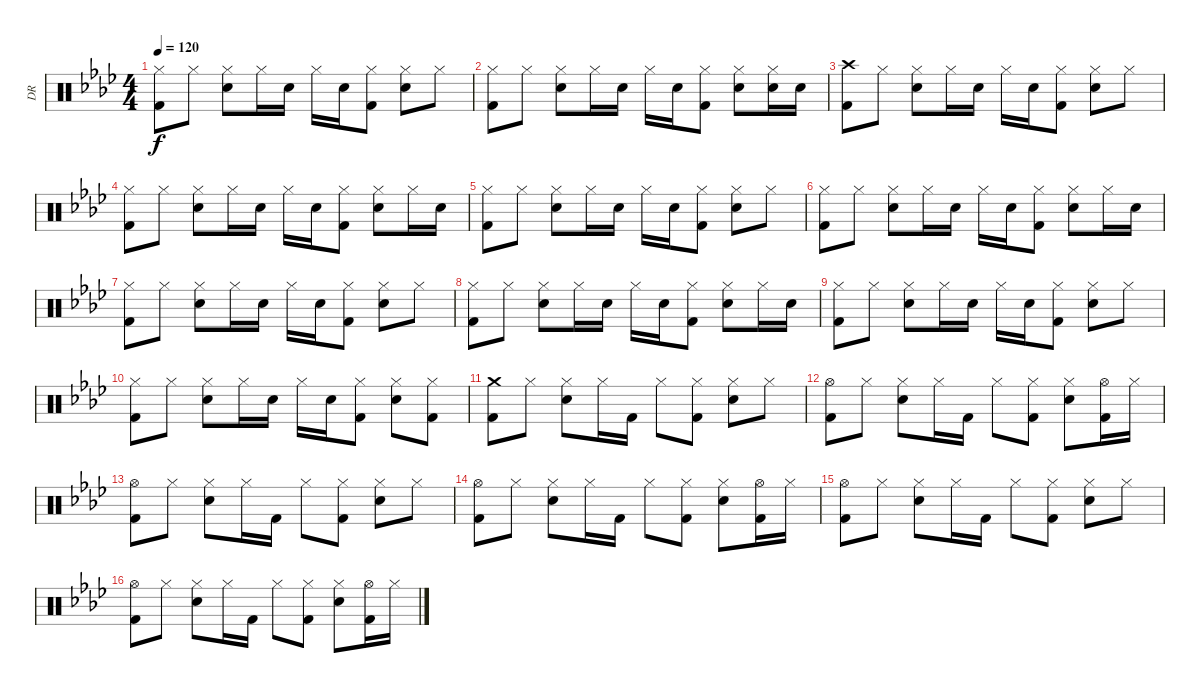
\track ("DR" "DR") {instrument percussion}
\staff {score}
\articulation defaults
\ts (4 4)
\tempo 120
\clef neutral
\ks ab
("Hi-Hat (closed)" "Kick (hit) 2").8{dy f} "Hi-Hat (closed)".8 ("Hi-Hat (closed)" "Electric Snare (hit)").8 "Hi-Hat (closed)".16 "Electric Snare (hit)".16 "Hi-Hat (closed)".16 "Electric Snare (hit)".16 ("Hi-Hat (closed)" "Kick (hit) 2").8 ("Hi-Hat (closed)" "Electric Snare (hit)").8 "Hi-Hat (closed)".8 |
("Hi-Hat (closed)" "Kick (hit) 2").8 "Hi-Hat (closed)".8 ("Hi-Hat (closed)" "Electric Snare (hit)").8 "Hi-Hat (closed)".16 "Electric Snare (hit)".16 "Hi-Hat (closed)".16 "Electric Snare (hit)".16 ("Hi-Hat (closed)" "Kick (hit) 2").8 ("Hi-Hat (closed)" "Electric Snare (hit)").8 ("Hi-Hat (closed)" "Electric Snare (hit)").16 "Electric Snare (hit)".16 |
("Crash high (hit)" "Kick (hit) 2").8 "Hi-Hat (closed)".8 ("Hi-Hat (closed)" "Electric Snare (hit)").8 "Hi-Hat (closed)".16 "Electric Snare (hit)".16 "Hi-Hat (closed)".16 "Electric Snare (hit)".16 ("Hi-Hat (closed)" "Kick (hit) 2").8 ("Hi-Hat (closed)" "Electric Snare (hit)").8 "Hi-Hat (closed)".8 |
("Hi-Hat (closed)" "Kick (hit) 2").8 "Hi-Hat (closed)".8 ("Hi-Hat (closed)" "Electric Snare (hit)").8 "Hi-Hat (closed)".16 "Electric Snare (hit)".16 "Hi-Hat (closed)".16 "Electric Snare (hit)".16 ("Hi-Hat (closed)" "Kick (hit) 2").8 ("Hi-Hat (closed)" "Electric Snare (hit)").8 "Hi-Hat (closed)".16 "Electric Snare (hit)".16 |
("Hi-Hat (closed)" "Kick (hit) 2").8 "Hi-Hat (closed)".8 ("Hi-Hat (closed)" "Electric Snare (hit)").8 "Hi-Hat (closed)".16 "Electric Snare (hit)".16 "Hi-Hat (closed)".16 "Electric Snare (hit)".16 ("Hi-Hat (closed)" "Kick (hit) 2").8 ("Hi-Hat (closed)" "Electric Snare (hit)").8 "Hi-Hat (closed)".8 |
("Hi-Hat (closed)" "Kick (hit) 2").8 "Hi-Hat (closed)".8 ("Hi-Hat (closed)" "Electric Snare (hit)").8 "Hi-Hat (closed)".16 "Electric Snare (hit)".16 "Hi-Hat (closed)".16 "Electric Snare (hit)".16 ("Hi-Hat (closed)" "Kick (hit) 2").8 ("Hi-Hat (closed)" "Electric Snare (hit)").8 "Hi-Hat (closed)".16 "Electric Snare (hit)".16 |
("Hi-Hat (closed)" "Kick (hit) 2").8 "Hi-Hat (closed)".8 ("Hi-Hat (closed)" "Electric Snare (hit)").8 "Hi-Hat (closed)".16 "Electric Snare (hit)".16 "Hi-Hat (closed)".16 "Electric Snare (hit)".16 ("Hi-Hat (closed)" "Kick (hit) 2").8 ("Hi-Hat (closed)" "Electric Snare (hit)").8 "Hi-Hat (closed)".8 |
("Hi-Hat (closed)" "Kick (hit) 2").8 "Hi-Hat (closed)".8 ("Hi-Hat (closed)" "Electric Snare (hit)").8 "Hi-Hat (closed)".16 "Electric Snare (hit)".16 "Hi-Hat (closed)".16 "Electric Snare (hit)".16 ("Hi-Hat (closed)" "Kick (hit) 2").8 ("Hi-Hat (closed)" "Electric Snare (hit)").8 "Hi-Hat (closed)".16 "Electric Snare (hit)".16 |
("Hi-Hat (closed)" "Kick (hit) 2").8 "Hi-Hat (closed)".8 ("Hi-Hat (closed)" "Electric Snare (hit)").8 "Hi-Hat (closed)".16 "Electric Snare (hit)".16 "Hi-Hat (closed)".16 "Electric Snare (hit)".16 ("Hi-Hat (closed)" "Kick (hit) 2").8 ("Hi-Hat (closed)" "Electric Snare (hit)").8 "Hi-Hat (closed)".8 |
("Hi-Hat (closed)" "Kick (hit) 2").8 "Hi-Hat (closed)".8 ("Hi-Hat (closed)" "Electric Snare (hit)").8 "Hi-Hat (closed)".16 "Electric Snare (hit)".16 "Hi-Hat (closed)".16 "Electric Snare (hit)".16 ("Hi-Hat (closed)" "Kick (hit) 2").8 ("Hi-Hat (closed)" "Electric Snare (hit)").8 ("Hi-Hat (closed)" "Kick (hit) 2").8 |
("Crash medium (hit)" "Kick (hit) 2").8 "Hi-Hat (closed)".8 ("Hi-Hat (closed)" "Electric Snare (hit)").8 "Hi-Hat (closed)".16 "Kick (hit) 2".16 "Hi-Hat (closed)".8 ("Hi-Hat (closed)" "Kick (hit) 2").8 ("Hi-Hat (closed)" "Electric Snare (hit)").8 "Hi-Hat (closed)".8 |
("Hi-Hat (open)" "Kick (hit) 2").8 "Hi-Hat (closed)".8 ("Hi-Hat (closed)" "Electric Snare (hit)").8 "Hi-Hat (closed)".16 "Kick (hit) 2".16 "Hi-Hat (closed)".8 ("Hi-Hat (closed)" "Kick (hit) 2").8 ("Hi-Hat (closed)" "Electric Snare (hit)").8 ("Hi-Hat (open)" "Kick (hit) 2").16 "Hi-Hat (closed)".16 |
("Hi-Hat (open)" "Kick (hit) 2").8 "Hi-Hat (closed)".8 ("Hi-Hat (closed)" "Electric Snare (hit)").8 "Hi-Hat (closed)".16 "Kick (hit) 2".16 "Hi-Hat (closed)".8 ("Hi-Hat (closed)" "Kick (hit) 2").8 ("Hi-Hat (closed)" "Electric Snare (hit)").8 "Hi-Hat (closed)".8 |
("Hi-Hat (open)" "Kick (hit) 2").8 "Hi-Hat (closed)".8 ("Hi-Hat (closed)" "Electric Snare (hit)").8 "Hi-Hat (closed)".16 "Kick (hit) 2".16 "Hi-Hat (closed)".8 ("Hi-Hat (closed)" "Kick (hit) 2").8 ("Hi-Hat (closed)" "Electric Snare (hit)").8 ("Hi-Hat (open)" "Kick (hit) 2").16 "Hi-Hat (closed)".16 |
("Hi-Hat (open)" "Kick (hit) 2").8 "Hi-Hat (closed)".8 ("Hi-Hat (closed)" "Electric Snare (hit)").8 "Hi-Hat (closed)".16 "Kick (hit) 2".16 "Hi-Hat (closed)".8 ("Hi-Hat (closed)" "Kick (hit) 2").8 ("Hi-Hat (closed)" "Electric Snare (hit)").8 "Hi-Hat (closed)".8 |
("Hi-Hat (open)" "Kick (hit) 2").8 "Hi-Hat (closed)".8 ("Hi-Hat (closed)" "Electric Snare (hit)").8 "Hi-Hat (closed)".16 "Kick (hit) 2".16 "Hi-Hat (closed)".8 ("Hi-Hat (closed)" "Kick (hit) 2").8 ("Hi-Hat (closed)" "Electric Snare (hit)").8 ("Hi-Hat (open)" "Kick (hit) 2").16 "Hi-Hat (closed)".16
